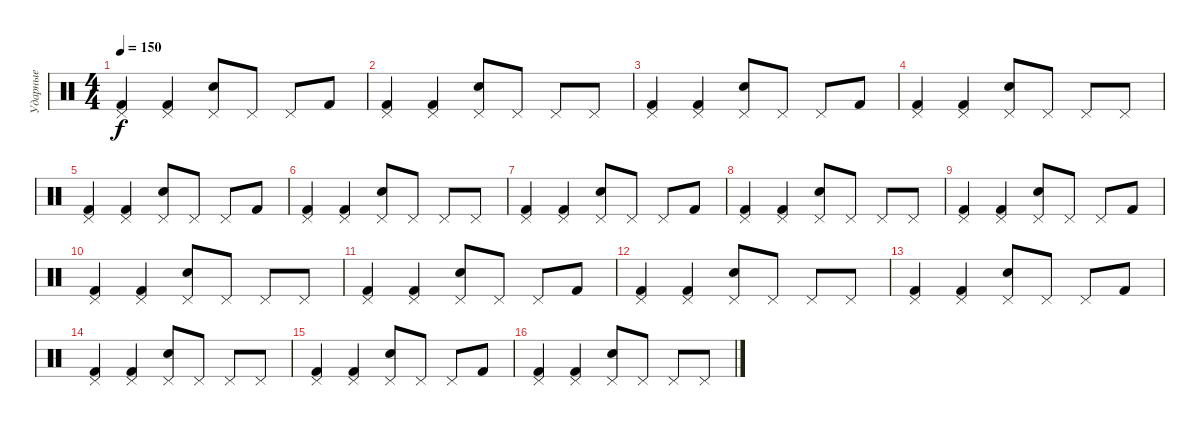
\track ("Ударные" "Ударные") {instrument percussion}
\staff {score}
\articulation defaults
\ts (4 4)
\tempo 150
\clef neutral
\ks c
("Pedal Hi-Hat (hit)" "Kick (hit) 2").4{dy f} ("Pedal Hi-Hat (hit)" "Kick (hit) 2").4 ("Pedal Hi-Hat (hit)" "Snare (hit) 2").8 "Pedal Hi-Hat (hit)".8 "Pedal Hi-Hat (hit)".8 "Kick (hit) 2".8 |
("Pedal Hi-Hat (hit)" "Kick (hit) 2").4 ("Pedal Hi-Hat (hit)" "Kick (hit) 2").4 ("Pedal Hi-Hat (hit)" "Snare (hit) 2").8 "Pedal Hi-Hat (hit)".8 "Pedal Hi-Hat (hit)".8 "Pedal Hi-Hat (hit)".8 |
("Pedal Hi-Hat (hit)" "Kick (hit) 2").4 ("Pedal Hi-Hat (hit)" "Kick (hit) 2").4 ("Pedal Hi-Hat (hit)" "Snare (hit) 2").8 "Pedal Hi-Hat (hit)".8 "Pedal Hi-Hat (hit)".8 "Kick (hit) 2".8 |
("Pedal Hi-Hat (hit)" "Kick (hit) 2").4 ("Pedal Hi-Hat (hit)" "Kick (hit) 2").4 ("Pedal Hi-Hat (hit)" "Snare (hit) 2").8 "Pedal Hi-Hat (hit)".8 "Pedal Hi-Hat (hit)".8 "Pedal Hi-Hat (hit)".8 |
("Pedal Hi-Hat (hit)" "Kick (hit) 2").4 ("Pedal Hi-Hat (hit)" "Kick (hit) 2").4 ("Pedal Hi-Hat (hit)" "Snare (hit) 2").8 "Pedal Hi-Hat (hit)".8 "Pedal Hi-Hat (hit)".8 "Kick (hit) 2".8 |
("Pedal Hi-Hat (hit)" "Kick (hit) 2").4 ("Pedal Hi-Hat (hit)" "Kick (hit) 2").4 ("Pedal Hi-Hat (hit)" "Snare (hit) 2").8 "Pedal Hi-Hat (hit)".8 "Pedal Hi-Hat (hit)".8 "Pedal Hi-Hat (hit)".8 |
("Pedal Hi-Hat (hit)" "Kick (hit) 2").4 ("Pedal Hi-Hat (hit)" "Kick (hit) 2").4 ("Pedal Hi-Hat (hit)" "Snare (hit) 2").8 "Pedal Hi-Hat (hit)".8 "Pedal Hi-Hat (hit)".8 "Kick (hit) 2".8 |
("Pedal Hi-Hat (hit)" "Kick (hit) 2").4 ("Pedal Hi-Hat (hit)" "Kick (hit) 2").4 ("Pedal Hi-Hat (hit)" "Snare (hit) 2").8 "Pedal Hi-Hat (hit)".8 "Pedal Hi-Hat (hit)".8 "Pedal Hi-Hat (hit)".8 |
("Pedal Hi-Hat (hit)" "Kick (hit) 2").4 ("Pedal Hi-Hat (hit)" "Kick (hit) 2").4 ("Pedal Hi-Hat (hit)" "Snare (hit) 2").8 "Pedal Hi-Hat (hit)".8 "Pedal Hi-Hat (hit)".8 "Kick (hit) 2".8 |
("Pedal Hi-Hat (hit)" "Kick (hit) 2").4 ("Pedal Hi-Hat (hit)" "Kick (hit) 2").4 ("Pedal Hi-Hat (hit)" "Snare (hit) 2").8 "Pedal Hi-Hat (hit)".8 "Pedal Hi-Hat (hit)".8 "Pedal Hi-Hat (hit)".8 |
("Pedal Hi-Hat (hit)" "Kick (hit) 2").4 ("Pedal Hi-Hat (hit)" "Kick (hit) 2").4 ("Pedal Hi-Hat (hit)" "Snare (hit) 2").8 "Pedal Hi-Hat (hit)".8 "Pedal Hi-Hat (hit)".8 "Kick (hit) 2".8 |
("Pedal Hi-Hat (hit)" "Kick (hit) 2").4 ("Pedal Hi-Hat (hit)" "Kick (hit) 2").4 ("Pedal Hi-Hat (hit)" "Snare (hit) 2").8 "Pedal Hi-Hat (hit)".8 "Pedal Hi-Hat (hit)".8 "Pedal Hi-Hat (hit)".8 |
("Pedal Hi-Hat (hit)" "Kick (hit) 2").4 ("Pedal Hi-Hat (hit)" "Kick (hit) 2").4 ("Pedal Hi-Hat (hit)" "Snare (hit) 2").8 "Pedal Hi-Hat (hit)".8 "Pedal Hi-Hat (hit)".8 "Kick (hit) 2".8 |
("Pedal Hi-Hat (hit)" "Kick (hit) 2").4 ("Pedal Hi-Hat (hit)" "Kick (hit) 2").4 ("Pedal Hi-Hat (hit)" "Snare (hit) 2").8 "Pedal Hi-Hat (hit)".8 "Pedal Hi-Hat (hit)".8 "Pedal Hi-Hat (hit)".8 |
("Pedal Hi-Hat (hit)" "Kick (hit) 2").4 ("Pedal Hi-Hat (hit)" "Kick (hit) 2").4 ("Pedal Hi-Hat (hit)" "Snare (hit) 2").8 "Pedal Hi-Hat (hit)".8 "Pedal Hi-Hat (hit)".8 "Kick (hit) 2".8 |
("Pedal Hi-Hat (hit)" "Kick (hit) 2").4 ("Pedal Hi-Hat (hit)" "Kick (hit) 2").4 ("Pedal Hi-Hat (hit)" "Snare (hit) 2").8 "Pedal Hi-Hat (hit)".8 "Pedal Hi-Hat (hit)".8 "Pedal Hi-Hat (hit)".8
